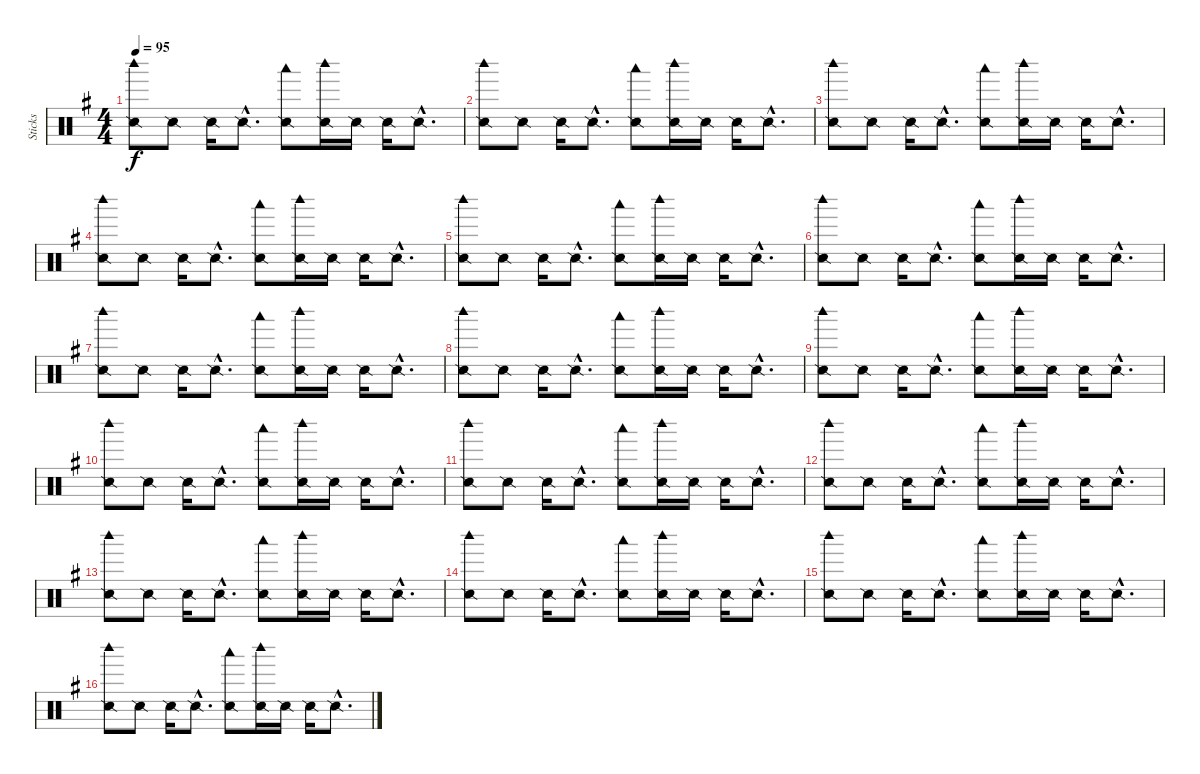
\track ("Sticks" "Sticks") {instrument percussion}
\staff {score}
\articulation defaults
\ts (4 4)
\tempo 95
\clef neutral
\ks g
("Snare (side stick) 2" "Woodblock high (hit)").8{dy f} "Snare (side stick) 2".8 "Snare (side stick) 2".16 "Snare (side stick) 2"{hac}.8{d} ("Snare (side stick) 2" "Woodblock low (hit)").8 ("Snare (side stick) 2" "Woodblock high (hit)").16 "Snare (side stick) 2".16 "Snare (side stick) 2".16 "Snare (side stick) 2"{hac}.8{d} |
("Snare (side stick) 2" "Woodblock high (hit)").8 "Snare (side stick) 2".8 "Snare (side stick) 2".16 "Snare (side stick) 2"{hac}.8{d} ("Snare (side stick) 2" "Woodblock low (hit)").8 ("Snare (side stick) 2" "Woodblock high (hit)").16 "Snare (side stick) 2".16 "Snare (side stick) 2".16 "Snare (side stick) 2"{hac}.8{d} |
("Snare (side stick) 2" "Woodblock high (hit)").8 "Snare (side stick) 2".8 "Snare (side stick) 2".16 "Snare (side stick) 2"{hac}.8{d} ("Snare (side stick) 2" "Woodblock low (hit)").8 ("Snare (side stick) 2" "Woodblock high (hit)").16 "Snare (side stick) 2".16 "Snare (side stick) 2".16 "Snare (side stick) 2"{hac}.8{d} |
("Snare (side stick) 2" "Woodblock high (hit)").8 "Snare (side stick) 2".8 "Snare (side stick) 2".16 "Snare (side stick) 2"{hac}.8{d} ("Snare (side stick) 2" "Woodblock low (hit)").8 ("Snare (side stick) 2" "Woodblock high (hit)").16 "Snare (side stick) 2".16 "Snare (side stick) 2".16 "Snare (side stick) 2"{hac}.8{d} |
("Snare (side stick) 2" "Woodblock high (hit)").8 "Snare (side stick) 2".8 "Snare (side stick) 2".16 "Snare (side stick) 2"{hac}.8{d} ("Snare (side stick) 2" "Woodblock low (hit)").8 ("Snare (side stick) 2" "Woodblock high (hit)").16 "Snare (side stick) 2".16 "Snare (side stick) 2".16 "Snare (side stick) 2"{hac}.8{d} |
("Snare (side stick) 2" "Woodblock high (hit)").8 "Snare (side stick) 2".8 "Snare (side stick) 2".16 "Snare (side stick) 2"{hac}.8{d} ("Snare (side stick) 2" "Woodblock low (hit)").8 ("Snare (side stick) 2" "Woodblock high (hit)").16 "Snare (side stick) 2".16 "Snare (side stick) 2".16 "Snare (side stick) 2"{hac}.8{d} |
("Snare (side stick) 2" "Woodblock high (hit)").8 "Snare (side stick) 2".8 "Snare (side stick) 2".16 "Snare (side stick) 2"{hac}.8{d} ("Snare (side stick) 2" "Woodblock low (hit)").8 ("Snare (side stick) 2" "Woodblock high (hit)").16 "Snare (side stick) 2".16 "Snare (side stick) 2".16 "Snare (side stick) 2"{hac}.8{d} |
("Snare (side stick) 2" "Woodblock high (hit)").8 "Snare (side stick) 2".8 "Snare (side stick) 2".16 "Snare (side stick) 2"{hac}.8{d} ("Snare (side stick) 2" "Woodblock low (hit)").8 ("Snare (side stick) 2" "Woodblock high (hit)").16 "Snare (side stick) 2".16 "Snare (side stick) 2".16 "Snare (side stick) 2"{hac}.8{d} |
("Snare (side stick) 2" "Woodblock high (hit)").8 "Snare (side stick) 2".8 "Snare (side stick) 2".16 "Snare (side stick) 2"{hac}.8{d} ("Snare (side stick) 2" "Woodblock low (hit)").8 ("Snare (side stick) 2" "Woodblock high (hit)").16 "Snare (side stick) 2".16 "Snare (side stick) 2".16 "Snare (side stick) 2"{hac}.8{d} |
("Snare (side stick) 2" "Woodblock high (hit)").8 "Snare (side stick) 2".8 "Snare (side stick) 2".16 "Snare (side stick) 2"{hac}.8{d} ("Snare (side stick) 2" "Woodblock low (hit)").8 ("Snare (side stick) 2" "Woodblock high (hit)").16 "Snare (side stick) 2".16 "Snare (side stick) 2".16 "Snare (side stick) 2"{hac}.8{d} |
("Snare (side stick) 2" "Woodblock high (hit)").8 "Snare (side stick) 2".8 "Snare (side stick) 2".16 "Snare (side stick) 2"{hac}.8{d} ("Snare (side stick) 2" "Woodblock low (hit)").8 ("Snare (side stick) 2" "Woodblock high (hit)").16 "Snare (side stick) 2".16 "Snare (side stick) 2".16 "Snare (side stick) 2"{hac}.8{d} |
("Snare (side stick) 2" "Woodblock high (hit)").8 "Snare (side stick) 2".8 "Snare (side stick) 2".16 "Snare (side stick) 2"{hac}.8{d} ("Snare (side stick) 2" "Woodblock low (hit)").8 ("Snare (side stick) 2" "Woodblock high (hit)").16 "Snare (side stick) 2".16 "Snare (side stick) 2".16 "Snare (side stick) 2"{hac}.8{d} |
("Snare (side stick) 2" "Woodblock high (hit)").8 "Snare (side stick) 2".8 "Snare (side stick) 2".16 "Snare (side stick) 2"{hac}.8{d} ("Snare (side stick) 2" "Woodblock low (hit)").8 ("Snare (side stick) 2" "Woodblock high (hit)").16 "Snare (side stick) 2".16 "Snare (side stick) 2".16 "Snare (side stick) 2"{hac}.8{d} |
("Snare (side stick) 2" "Woodblock high (hit)").8 "Snare (side stick) 2".8 "Snare (side stick) 2".16 "Snare (side stick) 2"{hac}.8{d} ("Snare (side stick) 2" "Woodblock low (hit)").8 ("Snare (side stick) 2" "Woodblock high (hit)").16 "Snare (side stick) 2".16 "Snare (side stick) 2".16 "Snare (side stick) 2"{hac}.8{d} |
("Snare (side stick) 2" "Woodblock high (hit)").8 "Snare (side stick) 2".8 "Snare (side stick) 2".16 "Snare (side stick) 2"{hac}.8{d} ("Snare (side stick) 2" "Woodblock low (hit)").8 ("Snare (side stick) 2" "Woodblock high (hit)").16 "Snare (side stick) 2".16 "Snare (side stick) 2".16 "Snare (side stick) 2"{hac}.8{d} |
("Snare (side stick) 2" "Woodblock high (hit)").8 "Snare (side stick) 2".8 "Snare (side stick) 2".16 "Snare (side stick) 2"{hac}.8{d} ("Snare (side stick) 2" "Woodblock low (hit)").8 ("Snare (side stick) 2" "Woodblock high (hit)").16 "Snare (side stick) 2".16 "Snare (side stick) 2".16 "Snare (side stick) 2"{hac}.8{d}
